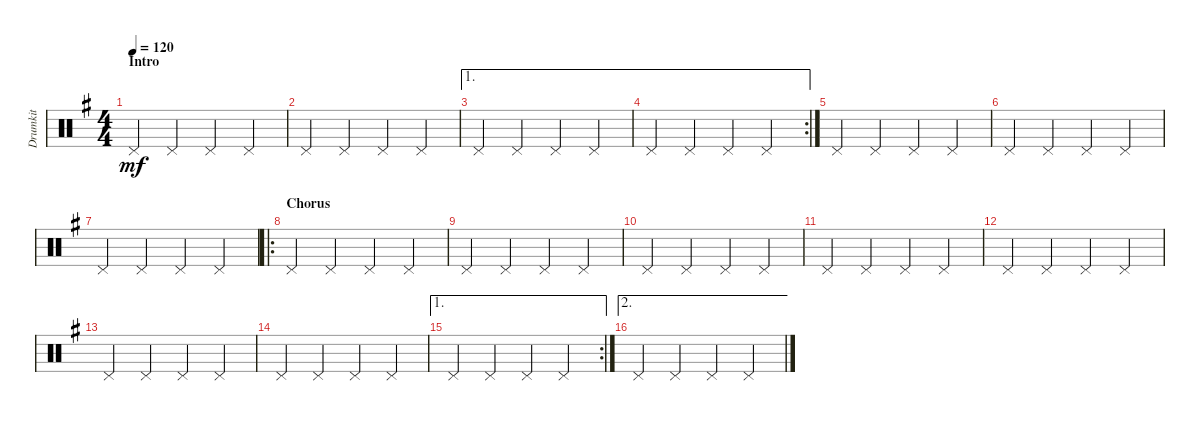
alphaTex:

\track ("Drumkit" "Drumkit") {mute instrument percussion}
\staff {score}
\articulation defaults
\ts (4 4)
\section ("" "Intro")
\tempo 120
\clef neutral
\ks g "Pedal Hi-Hat (hit)".4{dy mf} "Pedal Hi-Hat (hit)".4 "Pedal Hi-Hat (hit)".4 "Pedal Hi-Hat (hit)".4
|
"Pedal Hi-Hat (hit)".4 "Pedal Hi-Hat (hit)".4 "Pedal Hi-Hat (hit)".4 "Pedal Hi-Hat (hit)".4 |
\ae 1 "Pedal Hi-Hat (hit)".4 "Pedal Hi-Hat (hit)".4 "Pedal Hi-Hat (hit)".4 "Pedal Hi-Hat (hit)".4
|
\ae 1
\rc 2 "Pedal Hi-Hat (hit)".4 "Pedal Hi-Hat (hit)".4 "Pedal Hi-Hat (hit)".4 "Pedal Hi-Hat (hit)".4
|
"Pedal Hi-Hat (hit)".4 "Pedal Hi-Hat (hit)".4 "Pedal Hi-Hat (hit)".4 "Pedal Hi-Hat (hit)".4 |
"Pedal Hi-Hat (hit)".4 "Pedal Hi-Hat (hit)".4 "Pedal Hi-Hat (hit)".4 "Pedal Hi-Hat (hit)".4 |
"Pedal Hi-Hat (hit)".4 "Pedal Hi-Hat (hit)".4 "Pedal Hi-Hat (hit)".4 "Pedal Hi-Hat (hit)".4 |
\ro
\section ("" "Chorus")
"Pedal Hi-Hat (hit)".4 "Pedal Hi-Hat (hit)".4 "Pedal Hi-Hat (hit)".4 "Pedal Hi-Hat (hit)".4 |
"Pedal Hi-Hat (hit)".4 "Pedal Hi-Hat (hit)".4 "Pedal Hi-Hat (hit)".4 "Pedal Hi-Hat (hit)".4 |
"Pedal Hi-Hat (hit)".4 "Pedal Hi-Hat (hit)".4 "Pedal Hi-Hat (hit)".4 "Pedal Hi-Hat (hit)".4 |
"Pedal Hi-Hat (hit)".4 "Pedal Hi-Hat (hit)".4 "Pedal Hi-Hat (hit)".4 "Pedal Hi-Hat (hit)".4 |
"Pedal Hi-Hat (hit)".4 "Pedal Hi-Hat (hit)".4 "Pedal Hi-Hat (hit)".4 "Pedal Hi-Hat (hit)".4 |
"Pedal Hi-Hat (hit)".4 "Pedal Hi-Hat (hit)".4 "Pedal Hi-Hat (hit)".4 "Pedal Hi-Hat (hit)".4 |
"Pedal Hi-Hat (hit)".4 "Pedal Hi-Hat (hit)".4 "Pedal Hi-Hat (hit)".4 "Pedal Hi-Hat (hit)".4 |
\ae 1
\rc 2 "Pedal Hi-Hat (hit)".4 "Pedal Hi-Hat (hit)".4 "Pedal Hi-Hat (hit)".4 "Pedal Hi-Hat (hit)".4
|
\ae 2 "Pedal Hi-Hat (hit)".4 "Pedal Hi-Hat (hit)".4 "Pedal Hi-Hat (hit)".4 "Pedal Hi-Hat (hit)".4
